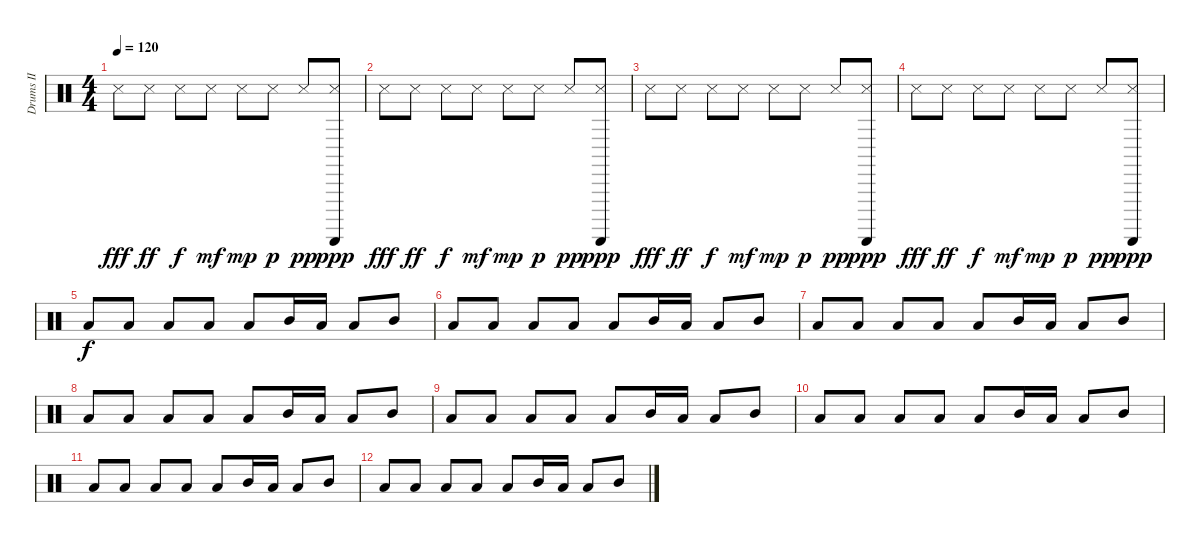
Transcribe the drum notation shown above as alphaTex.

\track ("Drums II" "Drums II") {instrument percussion}
\staff {score}
\articulation defaults
\ts (4 4)
\tempo 120
\clef neutral
\ks c "Snare (side stick) 3".8{dy fff} "Snare (side stick) 3".8{dy ff} "Snare (side stick) 3".8{dy f} "Snare (side stick) 3".8{dy mf} "Snare (side stick) 3".8{dy mp} "Snare (side stick) 3".8{dy p} "Snare (side stick) 3".8{dy pp}
("Guiro (scrap-return)" "Snare (side stick) 3").8{dy ppp} |
"Snare (side stick) 3".8{dy fff} "Snare (side stick) 3".8{dy ff} "Snare (side stick) 3".8{dy f} "Snare (side stick) 3".8{dy mf} "Snare (side stick) 3".8{dy mp} "Snare (side stick) 3".8{dy p} "Snare (side stick) 3".8{dy pp} ("Guiro (scrap-return)" "Snare (side stick) 3").8{dy ppp} |
"Snare (side stick) 3".8{dy fff} "Snare (side stick) 3".8{dy ff} "Snare (side stick) 3".8{dy f} "Snare (side stick) 3".8{dy mf} "Snare (side stick) 3".8{dy mp} "Snare (side stick) 3".8{dy p} "Snare (side stick) 3".8{dy pp} ("Guiro (scrap-return)" "Snare (side stick) 3").8{dy ppp} |
"Snare (side stick) 3".8{dy fff} "Snare (side stick) 3".8{dy ff} "Snare (side stick) 3".8{dy f} "Snare (side stick) 3".8{dy mf} "Snare (side stick) 3".8{dy mp} "Snare (side stick) 3".8{dy p} "Snare (side stick) 3".8{dy pp} ("Guiro (scrap-return)" "Snare (side stick) 3").8{dy ppp} |
"Low Tom (hit)".8{dy f} "Low Tom (hit)".8 "Low Tom (hit)".8 "Low Tom (hit)".8 "Low Tom (hit)".8 "Mid Tom (hit)".16 "Low Tom (hit)".16 "Low Tom (hit)".8 "Mid Tom (hit)".8 |
"Low Tom (hit)".8 "Low Tom (hit)".8 "Low Tom (hit)".8 "Low Tom (hit)".8 "Low Tom (hit)".8 "Mid Tom (hit)".16 "Low Tom (hit)".16 "Low Tom (hit)".8 "Mid Tom (hit)".8 |
"Low Tom (hit)".8 "Low Tom (hit)".8 "Low Tom (hit)".8 "Low Tom (hit)".8 "Low Tom (hit)".8 "Mid Tom (hit)".16 "Low Tom (hit)".16 "Low Tom (hit)".8 "Mid Tom (hit)".8 |
"Low Tom (hit)".8 "Low Tom (hit)".8 "Low Tom (hit)".8 "Low Tom (hit)".8 "Low Tom (hit)".8 "Mid Tom (hit)".16 "Low Tom (hit)".16 "Low Tom (hit)".8 "Mid Tom (hit)".8 |
"Low Tom (hit)".8 "Low Tom (hit)".8 "Low Tom (hit)".8 "Low Tom (hit)".8 "Low Tom (hit)".8 "Mid Tom (hit)".16 "Low Tom (hit)".16 "Low Tom (hit)".8 "Mid Tom (hit)".8 |
"Low Tom (hit)".8 "Low Tom (hit)".8 "Low Tom (hit)".8 "Low Tom (hit)".8 "Low Tom (hit)".8 "Mid Tom (hit)".16 "Low Tom (hit)".16 "Low Tom (hit)".8 "Mid Tom (hit)".8 |
"Low Tom (hit)".8 "Low Tom (hit)".8 "Low Tom (hit)".8 "Low Tom (hit)".8 "Low Tom (hit)".8 "Mid Tom (hit)".16 "Low Tom (hit)".16 "Low Tom (hit)".8 "Mid Tom (hit)".8 |
"Low Tom (hit)".8 "Low Tom (hit)".8 "Low Tom (hit)".8 "Low Tom (hit)".8 "Low Tom (hit)".8 "Mid Tom (hit)".16 "Low Tom (hit)".16 "Low Tom (hit)".8 "Mid Tom (hit)".8
